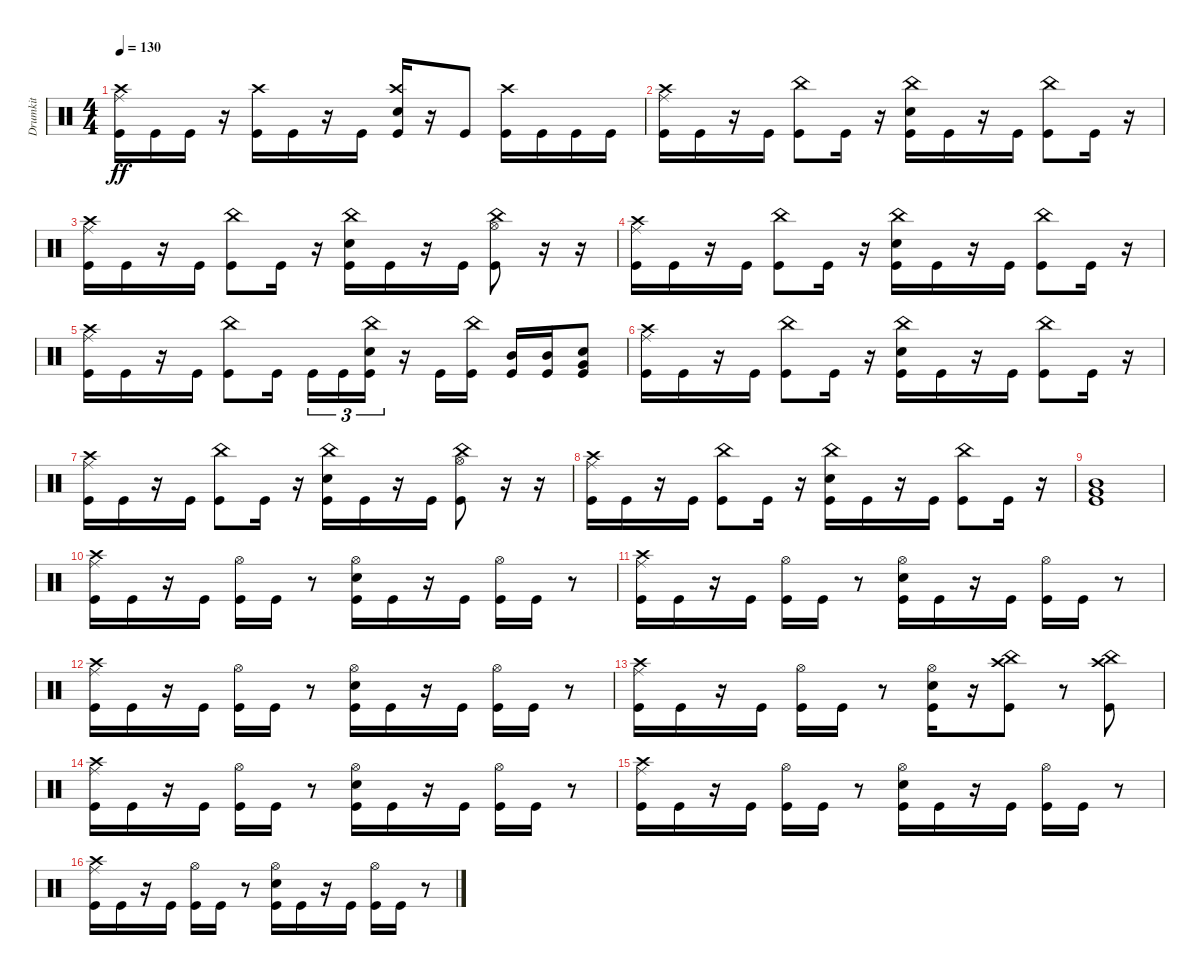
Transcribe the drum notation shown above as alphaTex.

\track ("Drumkit" "Drumkit") {instrument percussion}
\staff {score}
\articulation defaults
\ts (4 4)
\tempo 130
\clef neutral
\ks c
("Kick (hit)" "Crash high (hit)" "Ride (middle)").16{dy ff} "Kick (hit)".16 "Kick (hit)".16 r.16 ("Kick (hit)" "Crash high (hit)").16 "Kick (hit)".16 r.16 "Kick (hit)".16 ("Kick (hit)" "Crash high (hit)" "Snare (hit) 2").16 r.16 "Kick (hit)".8 ("Kick (hit)" "Crash high (hit)").16 "Kick (hit)".16 "Kick (hit)".16 "Kick (hit)".16 |
("Kick (hit)" "Ride (middle)" "Crash high (hit)").16 "Kick (hit)".16 r.16 "Kick (hit)".16 ("Kick (hit)" "China (hit)").8 "Kick (hit)".16 r.16 ("Kick (hit)" "Snare (hit) 2" "China (hit)").16 "Kick (hit)".16 r.16 "Kick (hit)".16 ("Kick (hit)" "China (hit)").8 "Kick (hit)".16 r.16 |
("Kick (hit)" "Ride (middle)" "Crash high (hit)").16 "Kick (hit)".16 r.16 "Kick (hit)".16 ("Kick (hit)" "China (hit)").8 "Kick (hit)".16 r.16 ("Kick (hit)" "Snare (hit) 2" "China (hit)").16 "Kick (hit)".16 r.16 "Kick (hit)".16 ("Kick (hit)" "China (hit)" "Hi-Hat (open)").8 r.16 r.16 |
("Kick (hit)" "Ride (middle)" "Crash high (hit)").16 "Kick (hit)".16 r.16 "Kick (hit)".16 ("Kick (hit)" "China (hit)").8 "Kick (hit)".16 r.16 ("Kick (hit)" "Snare (hit) 2" "China (hit)").16 "Kick (hit)".16 r.16 "Kick (hit)".16 ("Kick (hit)" "China (hit)").8 "Kick (hit)".16 r.16 |
("Kick (hit)" "Ride (middle)" "Crash high (hit)").16 "Kick (hit)".16 r.16 "Kick (hit)".16 ("Kick (hit)" "China (hit)").8 "Kick (hit)".16 "Kick (hit)".16{tu (3 2)} "Kick (hit)".16{tu (3 2)} ("Kick (hit)" "Snare (hit) 2" "China (hit)").16{tu (3 2)} r.16 "Kick (hit)".16 ("Kick (hit)" "China (hit)").16 ("Kick (hit)" "Mid Tom (hit)").16 ("Kick (hit)" "Mid Tom (hit)").16 ("Kick (hit)" "Snare (hit) 2" "Very Low Tom (hit)").8 |
("Kick (hit)" "Ride (middle)" "Crash high (hit)").16 "Kick (hit)".16 r.16 "Kick (hit)".16 ("Kick (hit)" "China (hit)").8 "Kick (hit)".16 r.16 ("Kick (hit)" "Snare (hit) 2" "China (hit)").16 "Kick (hit)".16 r.16 "Kick (hit)".16 ("Kick (hit)" "China (hit)").8 "Kick (hit)".16 r.16 |
("Kick (hit)" "Ride (middle)" "Crash high (hit)").16 "Kick (hit)".16 r.16 "Kick (hit)".16 ("Kick (hit)" "China (hit)").8 "Kick (hit)".16 r.16 ("Kick (hit)" "Snare (hit) 2" "China (hit)").16 "Kick (hit)".16 r.16 "Kick (hit)".16 ("Kick (hit)" "China (hit)" "Hi-Hat (open)").8 r.16 r.16 |
("Kick (hit)" "Ride (middle)" "Crash high (hit)").16 "Kick (hit)".16 r.16 "Kick (hit)".16 ("Kick (hit)" "China (hit)").8 "Kick (hit)".16 r.16 ("Kick (hit)" "Snare (hit) 2" "China (hit)").16 "Kick (hit)".16 r.16 "Kick (hit)".16 ("Kick (hit)" "China (hit)").8 "Kick (hit)".16 r.16 |
("Kick (hit)" "Very Low Tom (hit)" "Mid Tom (hit)").1 |
("Kick (hit)" "Ride (middle)" "Crash high (hit)").16 "Kick (hit)".16 r.16 "Kick (hit)".16 ("Kick (hit)" "Hi-Hat (open)").16 "Kick (hit)".16 r.8 ("Kick (hit)" "Snare (hit) 2" "Hi-Hat (open)").16 "Kick (hit)".16 r.16 "Kick (hit)".16 ("Kick (hit)" "Hi-Hat (open)").16 "Kick (hit)".16 r.8 |
("Kick (hit)" "Ride (middle)" "Crash high (hit)").16 "Kick (hit)".16 r.16 "Kick (hit)".16 ("Kick (hit)" "Hi-Hat (open)").16 "Kick (hit)".16 r.8 ("Kick (hit)" "Snare (hit) 2" "Hi-Hat (open)").16 "Kick (hit)".16 r.16 "Kick (hit)".16 ("Kick (hit)" "Hi-Hat (open)").16 "Kick (hit)".16 r.8 |
("Kick (hit)" "Ride (middle)" "Crash high (hit)").16 "Kick (hit)".16 r.16 "Kick (hit)".16 ("Kick (hit)" "Hi-Hat (open)").16 "Kick (hit)".16 r.8 ("Kick (hit)" "Snare (hit) 2" "Hi-Hat (open)").16 "Kick (hit)".16 r.16 "Kick (hit)".16 ("Kick (hit)" "Hi-Hat (open)").16 "Kick (hit)".16 r.8 |
("Kick (hit)" "Ride (middle)" "Crash high (hit)").16 "Kick (hit)".16 r.16 "Kick (hit)".16 ("Kick (hit)" "Hi-Hat (open)").16 "Kick (hit)".16 r.8 ("Kick (hit)" "Snare (hit) 2" "Hi-Hat (open)").16 r.16 ("Kick (hit)" "Crash high (hit)" "China (hit)").8 r.8 ("Kick (hit)" "Crash high (hit)" "China (hit)").8 |
("Kick (hit)" "Ride (middle)" "Crash high (hit)").16 "Kick (hit)".16 r.16 "Kick (hit)".16 ("Kick (hit)" "Hi-Hat (open)").16 "Kick (hit)".16 r.8 ("Kick (hit)" "Snare (hit) 2" "Hi-Hat (open)").16 "Kick (hit)".16 r.16 "Kick (hit)".16 ("Kick (hit)" "Hi-Hat (open)").16 "Kick (hit)".16 r.8 |
("Kick (hit)" "Ride (middle)" "Crash high (hit)").16 "Kick (hit)".16 r.16 "Kick (hit)".16 ("Kick (hit)" "Hi-Hat (open)").16 "Kick (hit)".16 r.8 ("Kick (hit)" "Snare (hit) 2" "Hi-Hat (open)").16 "Kick (hit)".16 r.16 "Kick (hit)".16 ("Kick (hit)" "Hi-Hat (open)").16 "Kick (hit)".16 r.8 |
("Kick (hit)" "Ride (middle)" "Crash high (hit)").16 "Kick (hit)".16 r.16 "Kick (hit)".16 ("Kick (hit)" "Hi-Hat (open)").16 "Kick (hit)".16 r.8 ("Kick (hit)" "Snare (hit) 2" "Hi-Hat (open)").16 "Kick (hit)".16 r.16 "Kick (hit)".16 ("Kick (hit)" "Hi-Hat (open)").16 "Kick (hit)".16 r.8
